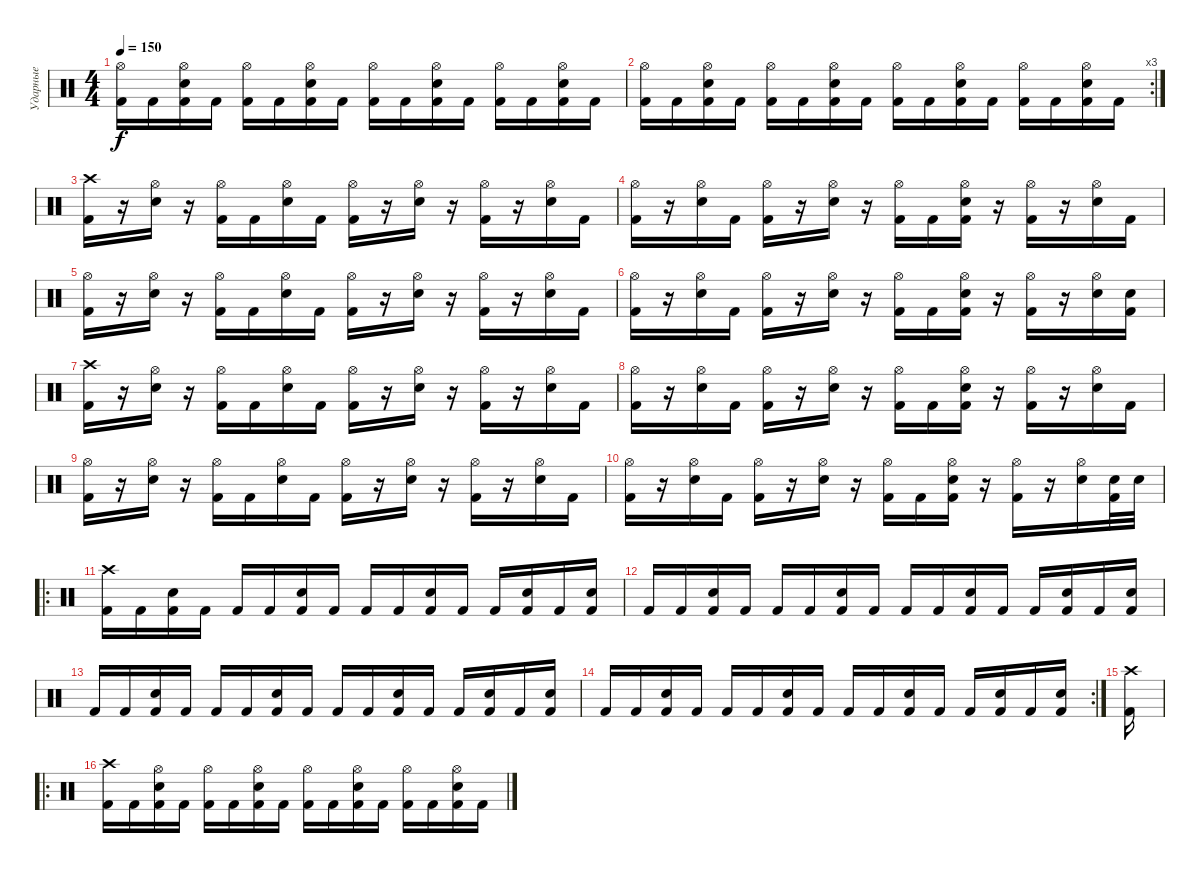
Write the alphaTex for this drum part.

\track ("Ударные" "Ударные") {instrument percussion}
\staff {score}
\articulation defaults
\ts (4 4)
\tempo 150
\clef neutral
\ks c
("Kick (hit) 2" "Hi-Hat (open)").16{dy f} "Kick (hit) 2".16 ("Kick (hit) 2" "Electric Snare (hit)" "Hi-Hat (open)").16 "Kick (hit) 2".16 ("Kick (hit) 2" "Hi-Hat (open)").16 "Kick (hit) 2".16 ("Kick (hit) 2" "Electric Snare (hit)" "Hi-Hat (open)").16 "Kick (hit) 2".16 ("Kick (hit) 2" "Hi-Hat (open)").16 "Kick (hit) 2".16 ("Kick (hit) 2" "Electric Snare (hit)" "Hi-Hat (open)").16 "Kick (hit) 2".16 ("Kick (hit) 2" "Hi-Hat (open)").16 "Kick (hit) 2".16 ("Kick (hit) 2" "Electric Snare (hit)" "Hi-Hat (open)").16 "Kick (hit) 2".16 |
\rc 3
("Kick (hit) 2" "Hi-Hat (open)").16 "Kick (hit) 2".16 ("Kick (hit) 2" "Electric Snare (hit)" "Hi-Hat (open)").16 "Kick (hit) 2".16 ("Kick (hit) 2" "Hi-Hat (open)").16 "Kick (hit) 2".16 ("Kick (hit) 2" "Electric Snare (hit)" "Hi-Hat (open)").16 "Kick (hit) 2".16 ("Kick (hit) 2" "Hi-Hat (open)").16 "Kick (hit) 2".16 ("Kick (hit) 2" "Electric Snare (hit)" "Hi-Hat (open)").16 "Kick (hit) 2".16 ("Kick (hit) 2" "Hi-Hat (open)").16 "Kick (hit) 2".16 ("Kick (hit) 2" "Electric Snare (hit)" "Hi-Hat (open)").16 "Kick (hit) 2".16 |
("Kick (hit) 2" "Crash high (hit)").16 r.16 ("Electric Snare (hit)" "Hi-Hat (open)").16 r.16 ("Kick (hit) 2" "Hi-Hat (open)").16 "Kick (hit) 2".16 ("Electric Snare (hit)" "Hi-Hat (open)").16 "Kick (hit) 2".16 ("Kick (hit) 2" "Hi-Hat (open)").16 r.16 ("Electric Snare (hit)" "Hi-Hat (open)").16 r.16 ("Kick (hit) 2" "Hi-Hat (open)").16 r.16 ("Electric Snare (hit)" "Hi-Hat (open)").16 "Kick (hit) 2".16 |
("Kick (hit) 2" "Hi-Hat (open)").16 r.16 ("Electric Snare (hit)" "Hi-Hat (open)").16 "Kick (hit) 2".16 ("Kick (hit) 2" "Hi-Hat (open)").16 r.16 ("Electric Snare (hit)" "Hi-Hat (open)").16 r.16 ("Kick (hit) 2" "Hi-Hat (open)").16 "Kick (hit) 2".16 ("Kick (hit) 2" "Electric Snare (hit)" "Hi-Hat (open)").16 r.16 ("Kick (hit) 2" "Hi-Hat (open)").16 r.16 ("Electric Snare (hit)" "Hi-Hat (open)").16 "Kick (hit) 2".16 |
("Kick (hit) 2" "Hi-Hat (open)").16 r.16 ("Electric Snare (hit)" "Hi-Hat (open)").16 r.16 ("Kick (hit) 2" "Hi-Hat (open)").16 "Kick (hit) 2".16 ("Electric Snare (hit)" "Hi-Hat (open)").16 "Kick (hit) 2".16 ("Kick (hit) 2" "Hi-Hat (open)").16 r.16 ("Electric Snare (hit)" "Hi-Hat (open)").16 r.16 ("Kick (hit) 2" "Hi-Hat (open)").16 r.16 ("Electric Snare (hit)" "Hi-Hat (open)").16 "Kick (hit) 2".16 |
("Kick (hit) 2" "Hi-Hat (open)").16 r.16 ("Electric Snare (hit)" "Hi-Hat (open)").16 "Kick (hit) 2".16 ("Kick (hit) 2" "Hi-Hat (open)").16 r.16 ("Electric Snare (hit)" "Hi-Hat (open)").16 r.16 ("Kick (hit) 2" "Hi-Hat (open)").16 "Kick (hit) 2".16 ("Kick (hit) 2" "Electric Snare (hit)" "Hi-Hat (open)").16 r.16 ("Kick (hit) 2" "Hi-Hat (open)").16 r.16 ("Electric Snare (hit)" "Hi-Hat (open)").16 ("Kick (hit) 2" "Electric Snare (hit)").16 |
("Kick (hit) 2" "Crash high (hit)").16 r.16 ("Electric Snare (hit)" "Hi-Hat (open)").16 r.16 ("Kick (hit) 2" "Hi-Hat (open)").16 "Kick (hit) 2".16 ("Electric Snare (hit)" "Hi-Hat (open)").16 "Kick (hit) 2".16 ("Kick (hit) 2" "Hi-Hat (open)").16 r.16 ("Electric Snare (hit)" "Hi-Hat (open)").16 r.16 ("Kick (hit) 2" "Hi-Hat (open)").16 r.16 ("Electric Snare (hit)" "Hi-Hat (open)").16 "Kick (hit) 2".16 |
("Kick (hit) 2" "Hi-Hat (open)").16 r.16 ("Electric Snare (hit)" "Hi-Hat (open)").16 "Kick (hit) 2".16 ("Kick (hit) 2" "Hi-Hat (open)").16 r.16 ("Electric Snare (hit)" "Hi-Hat (open)").16 r.16 ("Kick (hit) 2" "Hi-Hat (open)").16 "Kick (hit) 2".16 ("Kick (hit) 2" "Electric Snare (hit)" "Hi-Hat (open)").16 r.16 ("Kick (hit) 2" "Hi-Hat (open)").16 r.16 ("Electric Snare (hit)" "Hi-Hat (open)").16 "Kick (hit) 2".16 |
("Kick (hit) 2" "Hi-Hat (open)").16 r.16 ("Electric Snare (hit)" "Hi-Hat (open)").16 r.16 ("Kick (hit) 2" "Hi-Hat (open)").16 "Kick (hit) 2".16 ("Electric Snare (hit)" "Hi-Hat (open)").16 "Kick (hit) 2".16 ("Kick (hit) 2" "Hi-Hat (open)").16 r.16 ("Electric Snare (hit)" "Hi-Hat (open)").16 r.16 ("Kick (hit) 2" "Hi-Hat (open)").16 r.16 ("Electric Snare (hit)" "Hi-Hat (open)").16 "Kick (hit) 2".16 |
("Kick (hit) 2" "Hi-Hat (open)").16 r.16 ("Electric Snare (hit)" "Hi-Hat (open)").16 "Kick (hit) 2".16 ("Kick (hit) 2" "Hi-Hat (open)").16 r.16 ("Electric Snare (hit)" "Hi-Hat (open)").16 r.16 ("Kick (hit) 2" "Hi-Hat (open)").16 "Kick (hit) 2".16 ("Kick (hit) 2" "Electric Snare (hit)" "Hi-Hat (open)").16 r.16 ("Kick (hit) 2" "Hi-Hat (open)").16 r.16 ("Electric Snare (hit)" "Hi-Hat (open)").16 ("Kick (hit) 2" "Electric Snare (hit)").32 "Electric Snare (hit)".32 |
\ro
("Kick (hit) 2" "Crash high (hit)").16 "Kick (hit) 2".16 ("Kick (hit) 2" "Electric Snare (hit)").16 "Kick (hit) 2".16 "Kick (hit) 2".16 "Kick (hit) 2".16 ("Kick (hit) 2" "Electric Snare (hit)").16 "Kick (hit) 2".16 "Kick (hit) 2".16 "Kick (hit) 2".16 ("Kick (hit) 2" "Electric Snare (hit)").16 "Kick (hit) 2".16 "Kick (hit) 2".16 ("Kick (hit) 2" "Electric Snare (hit)").16 "Kick (hit) 2".16 ("Kick (hit) 2" "Electric Snare (hit)").16 |
"Kick (hit) 2".16 "Kick (hit) 2".16 ("Kick (hit) 2" "Electric Snare (hit)").16 "Kick (hit) 2".16 "Kick (hit) 2".16 "Kick (hit) 2".16 ("Kick (hit) 2" "Electric Snare (hit)").16 "Kick (hit) 2".16 "Kick (hit) 2".16 "Kick (hit) 2".16 ("Kick (hit) 2" "Electric Snare (hit)").16 "Kick (hit) 2".16 "Kick (hit) 2".16 ("Kick (hit) 2" "Electric Snare (hit)").16 "Kick (hit) 2".16 ("Kick (hit) 2" "Electric Snare (hit)").16 |
"Kick (hit) 2".16 "Kick (hit) 2".16 ("Kick (hit) 2" "Electric Snare (hit)").16 "Kick (hit) 2".16 "Kick (hit) 2".16 "Kick (hit) 2".16 ("Kick (hit) 2" "Electric Snare (hit)").16 "Kick (hit) 2".16 "Kick (hit) 2".16 "Kick (hit) 2".16 ("Kick (hit) 2" "Electric Snare (hit)").16 "Kick (hit) 2".16 "Kick (hit) 2".16 ("Kick (hit) 2" "Electric Snare (hit)").16 "Kick (hit) 2".16 ("Kick (hit) 2" "Electric Snare (hit)").16 |
\rc 2 "Kick (hit) 2".16 "Kick (hit) 2".16
("Kick (hit) 2" "Electric Snare (hit)").16 "Kick (hit) 2".16 "Kick (hit) 2".16 "Kick (hit) 2".16 ("Kick (hit) 2" "Electric Snare (hit)").16 "Kick (hit) 2".16 "Kick (hit) 2".16 "Kick (hit) 2".16 ("Kick (hit) 2" "Electric Snare (hit)").16 "Kick (hit) 2".16 "Kick (hit) 2".16 ("Kick (hit) 2" "Electric Snare (hit)").16 "Kick (hit) 2".16 ("Kick (hit) 2" "Electric Snare (hit)").16 |
("Kick (hit) 2" "Crash high (hit)").16 |
\ro
("Kick (hit) 2" "Crash high (hit)").16 "Kick (hit) 2".16 ("Kick (hit) 2" "Electric Snare (hit)" "Hi-Hat (open)").16 "Kick (hit) 2".16 ("Kick (hit) 2" "Hi-Hat (open)").16 "Kick (hit) 2".16 ("Kick (hit) 2" "Electric Snare (hit)" "Hi-Hat (open)").16 "Kick (hit) 2".16 ("Kick (hit) 2" "Hi-Hat (open)").16 "Kick (hit) 2".16 ("Kick (hit) 2" "Electric Snare (hit)" "Hi-Hat (open)").16 "Kick (hit) 2".16 ("Kick (hit) 2" "Hi-Hat (open)").16 "Kick (hit) 2".16 ("Kick (hit) 2" "Electric Snare (hit)" "Hi-Hat (open)").16 "Kick (hit) 2".16
